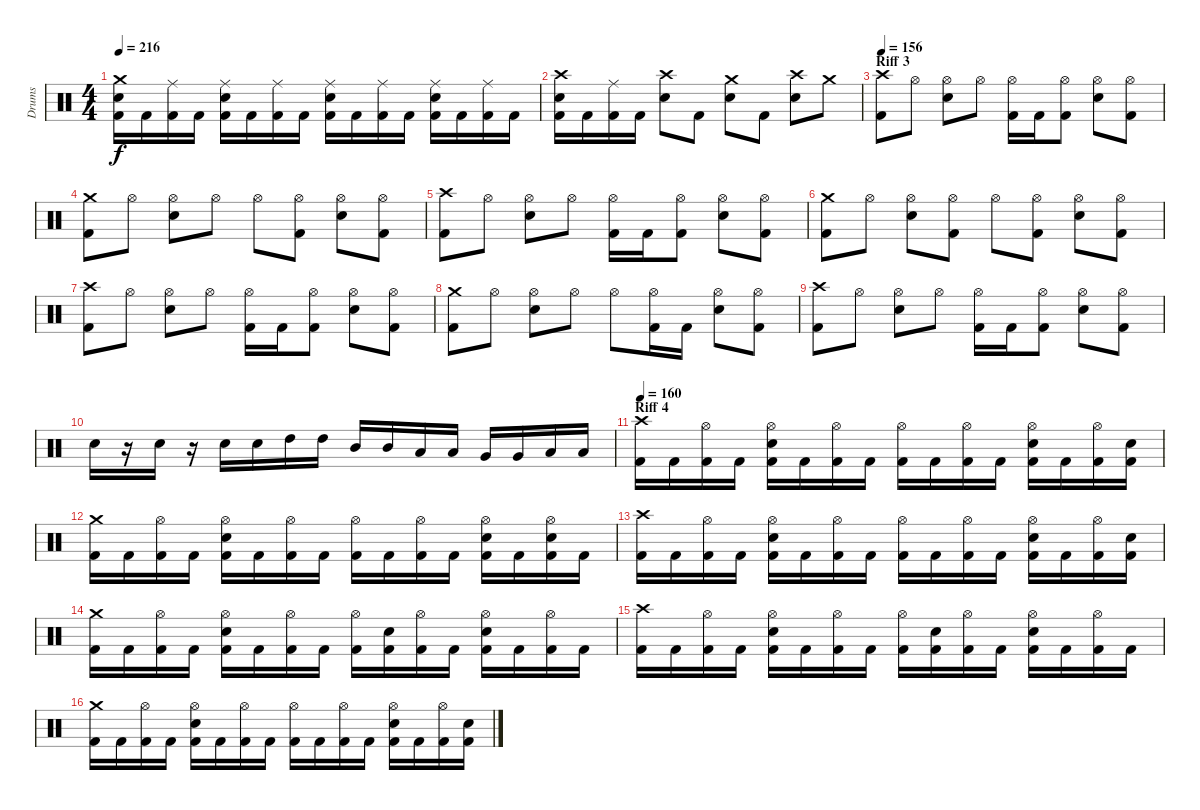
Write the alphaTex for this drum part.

\track ("Drums" "Drums") {instrument percussion}
\staff {score}
\articulation defaults
\ts (4 4)
\tempo 216
\clef neutral
\ks c
("Crash medium (hit)" "Electric Snare (hit)" "Kick (hit) 2").16{dy f} "Kick (hit) 2".16 ("Ride (middle)" "Kick (hit) 2").16 "Kick (hit) 2".16 ("Ride (middle)" "Electric Snare (hit)" "Kick (hit) 2").16 "Kick (hit) 2".16 ("Ride (middle)" "Kick (hit) 2").16 "Kick (hit) 2".16 ("Ride (middle)" "Electric Snare (hit)" "Kick (hit) 2").16 "Kick (hit) 2".16 ("Ride (middle)" "Kick (hit) 2").16 "Kick (hit) 2".16 ("Ride (middle)" "Electric Snare (hit)" "Kick (hit) 2").16 "Kick (hit) 2".16 ("Ride (middle)" "Kick (hit) 2").16 "Kick (hit) 2".16 |
("Crash high (hit)" "Electric Snare (hit)" "Kick (hit) 2").16 "Kick (hit) 2".16 ("Ride (middle)" "Kick (hit) 2").16 "Kick (hit) 2".16 ("Crash high (hit)" "Electric Snare (hit)").8 "Kick (hit) 2".8 ("Crash medium (hit)" "Electric Snare (hit)").8 "Kick (hit) 2".8 ("Crash high (hit)" "Electric Snare (hit)").8 "Crash medium (hit)".8 |
\section ("" "Riff 3")
\tempo 156
("Crash high (hit)" "Kick (hit) 2").8 "Hi-Hat (open)".8 ("Hi-Hat (open)" "Electric Snare (hit)").8 "Hi-Hat (open)".8 ("Hi-Hat (open)" "Kick (hit) 2").16 "Kick (hit) 2".16 ("Hi-Hat (open)" "Kick (hit) 2").8 ("Hi-Hat (open)" "Electric Snare (hit)").8 ("Hi-Hat (open)" "Kick (hit) 2").8 |
("Crash medium (hit)" "Kick (hit) 2").8 "Hi-Hat (open)".8 ("Hi-Hat (open)" "Electric Snare (hit)").8 "Hi-Hat (open)".8 "Hi-Hat (open)".8 ("Hi-Hat (open)" "Kick (hit) 2").8 ("Hi-Hat (open)" "Electric Snare (hit)").8 ("Hi-Hat (open)" "Kick (hit) 2").8 |
("Crash high (hit)" "Kick (hit) 2").8 "Hi-Hat (open)".8 ("Hi-Hat (open)" "Electric Snare (hit)").8 "Hi-Hat (open)".8 ("Hi-Hat (open)" "Kick (hit) 2").16 "Kick (hit) 2".16 ("Hi-Hat (open)" "Kick (hit) 2").8 ("Hi-Hat (open)" "Electric Snare (hit)").8 ("Hi-Hat (open)" "Kick (hit) 2").8 |
("Crash medium (hit)" "Kick (hit) 2").8 "Hi-Hat (open)".8 ("Hi-Hat (open)" "Electric Snare (hit)").8 ("Hi-Hat (open)" "Kick (hit) 2").8 "Hi-Hat (open)".8 ("Hi-Hat (open)" "Kick (hit) 2").8 ("Hi-Hat (open)" "Electric Snare (hit)").8 ("Hi-Hat (open)" "Kick (hit) 2").8 |
("Crash high (hit)" "Kick (hit) 2").8 "Hi-Hat (open)".8 ("Hi-Hat (open)" "Electric Snare (hit)").8 "Hi-Hat (open)".8 ("Hi-Hat (open)" "Kick (hit) 2").16 "Kick (hit) 2".16 ("Hi-Hat (open)" "Kick (hit) 2").8 ("Hi-Hat (open)" "Electric Snare (hit)").8 ("Hi-Hat (open)" "Kick (hit) 2").8 |
("Crash medium (hit)" "Kick (hit) 2").8 "Hi-Hat (open)".8 ("Hi-Hat (open)" "Electric Snare (hit)").8 "Hi-Hat (open)".8 "Hi-Hat (open)".8 ("Hi-Hat (open)" "Kick (hit) 2").16 "Kick (hit) 2".16 ("Hi-Hat (open)" "Electric Snare (hit)").8 ("Hi-Hat (open)" "Kick (hit) 2").8 |
("Crash high (hit)" "Kick (hit) 2").8 "Hi-Hat (open)".8 ("Hi-Hat (open)" "Electric Snare (hit)").8 "Hi-Hat (open)".8 ("Hi-Hat (open)" "Kick (hit) 2").16 "Kick (hit) 2".16 ("Hi-Hat (open)" "Kick (hit) 2").8 ("Hi-Hat (open)" "Electric Snare (hit)").8 ("Hi-Hat (open)" "Kick (hit) 2").8 |
"Electric Snare (hit)".16 r.16 "Electric Snare (hit)".16 r.16 "Electric Snare (hit)".16 "Electric Snare (hit)".16 "High Tom (hit)".16 "High Tom (hit)".16 "Mid Tom (hit)".16 "Mid Tom (hit)".16 "Low Tom (hit)".16 "Low Tom (hit)".16 "Very Low Tom (hit)".16 "Very Low Tom (hit)".16 "Low Floor Tom (hit)".16 "Low Floor Tom (hit)".16 |
\section ("" "Riff 4")
\tempo 160
("Crash high (hit)" "Kick (hit) 2").16 "Kick (hit) 2".16 ("Hi-Hat (open)" "Kick (hit) 2").16 "Kick (hit) 2".16 ("Hi-Hat (open)" "Electric Snare (hit)" "Kick (hit) 2").16 "Kick (hit) 2".16 ("Hi-Hat (open)" "Kick (hit) 2").16 "Kick (hit) 2".16 ("Hi-Hat (open)" "Kick (hit) 2").16 "Kick (hit) 2".16 ("Hi-Hat (open)" "Kick (hit) 2").16 "Kick (hit) 2".16 ("Hi-Hat (open)" "Electric Snare (hit)" "Kick (hit) 2").16 "Kick (hit) 2".16 ("Hi-Hat (open)" "Kick (hit) 2").16 ("Electric Snare (hit)" "Kick (hit) 2").16 |
("Crash medium (hit)" "Kick (hit) 2").16 "Kick (hit) 2".16 ("Hi-Hat (open)" "Kick (hit) 2").16 "Kick (hit) 2".16 ("Hi-Hat (open)" "Electric Snare (hit)" "Kick (hit) 2").16 "Kick (hit) 2".16 ("Hi-Hat (open)" "Kick (hit) 2").16 "Kick (hit) 2".16 ("Hi-Hat (open)" "Kick (hit) 2").16 "Kick (hit) 2".16 ("Hi-Hat (open)" "Kick (hit) 2").16 "Kick (hit) 2".16 ("Hi-Hat (open)" "Electric Snare (hit)" "Kick (hit) 2").16 "Kick (hit) 2".16 ("Hi-Hat (open)" "Electric Snare (hit)" "Kick (hit) 2").16 "Kick (hit) 2".16 |
("Crash high (hit)" "Kick (hit) 2").16 "Kick (hit) 2".16 ("Hi-Hat (open)" "Kick (hit) 2").16 "Kick (hit) 2".16 ("Hi-Hat (open)" "Electric Snare (hit)" "Kick (hit) 2").16 "Kick (hit) 2".16 ("Hi-Hat (open)" "Kick (hit) 2").16 "Kick (hit) 2".16 ("Hi-Hat (open)" "Kick (hit) 2").16 "Kick (hit) 2".16 ("Hi-Hat (open)" "Kick (hit) 2").16 "Kick (hit) 2".16 ("Hi-Hat (open)" "Electric Snare (hit)" "Kick (hit) 2").16 "Kick (hit) 2".16 ("Hi-Hat (open)" "Kick (hit) 2").16 ("Electric Snare (hit)" "Kick (hit) 2").16 |
("Crash medium (hit)" "Kick (hit) 2").16 "Kick (hit) 2".16 ("Hi-Hat (open)" "Kick (hit) 2").16 "Kick (hit) 2".16 ("Hi-Hat (open)" "Electric Snare (hit)" "Kick (hit) 2").16 "Kick (hit) 2".16 ("Hi-Hat (open)" "Kick (hit) 2").16 "Kick (hit) 2".16 ("Hi-Hat (open)" "Kick (hit) 2").16 ("Electric Snare (hit)" "Kick (hit) 2").16 ("Hi-Hat (open)" "Kick (hit) 2").16 "Kick (hit) 2".16 ("Hi-Hat (open)" "Electric Snare (hit)" "Kick (hit) 2").16 "Kick (hit) 2".16 ("Hi-Hat (open)" "Kick (hit) 2").16 "Kick (hit) 2".16 |
("Crash high (hit)" "Kick (hit) 2").16 "Kick (hit) 2".16 ("Hi-Hat (open)" "Kick (hit) 2").16 "Kick (hit) 2".16 ("Hi-Hat (open)" "Electric Snare (hit)" "Kick (hit) 2").16 "Kick (hit) 2".16 ("Hi-Hat (open)" "Kick (hit) 2").16 "Kick (hit) 2".16 ("Hi-Hat (open)" "Kick (hit) 2").16 ("Electric Snare (hit)" "Kick (hit) 2").16 ("Hi-Hat (open)" "Kick (hit) 2").16 "Kick (hit) 2".16 ("Hi-Hat (open)" "Electric Snare (hit)" "Kick (hit) 2").16 "Kick (hit) 2".16 ("Hi-Hat (open)" "Kick (hit) 2").16 "Kick (hit) 2".16 |
("Crash medium (hit)" "Kick (hit) 2").16 "Kick (hit) 2".16 ("Hi-Hat (open)" "Kick (hit) 2").16 "Kick (hit) 2".16 ("Hi-Hat (open)" "Electric Snare (hit)" "Kick (hit) 2").16 "Kick (hit) 2".16 ("Hi-Hat (open)" "Kick (hit) 2").16 "Kick (hit) 2".16 ("Hi-Hat (open)" "Kick (hit) 2").16 "Kick (hit) 2".16 ("Hi-Hat (open)" "Kick (hit) 2").16 "Kick (hit) 2".16 ("Hi-Hat (open)" "Electric Snare (hit)" "Kick (hit) 2").16 "Kick (hit) 2".16 ("Hi-Hat (open)" "Kick (hit) 2").16 ("Electric Snare (hit)" "Kick (hit) 2").16
